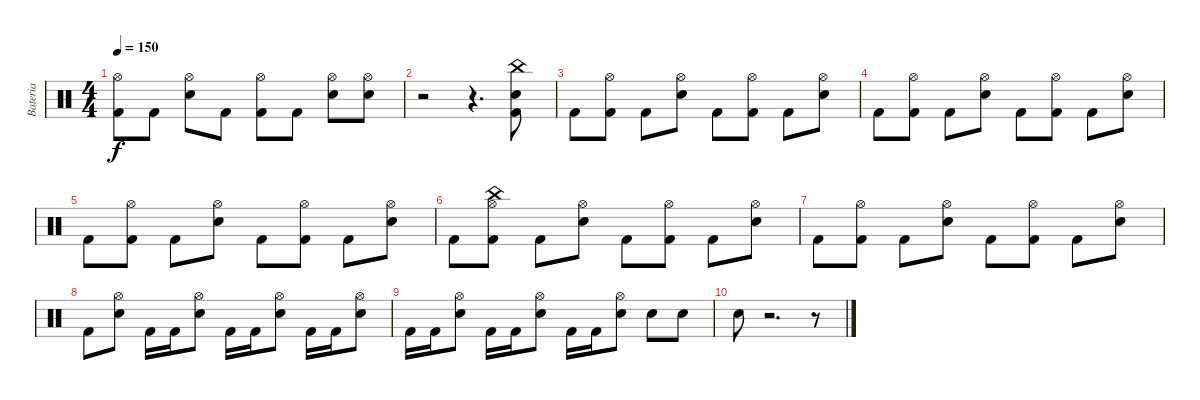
\track ("Bateria" "Bateria") {instrument percussion}
\staff {score}
\articulation defaults
\ts (4 4)
\tempo 150
\clef neutral
\ks c
("Kick (hit) 2" "Hi-Hat (open)").8{dy f} "Kick (hit) 2".8 ("Electric Snare (hit)" "Hi-Hat (open)").8 "Kick (hit) 2".8 ("Kick (hit) 2" "Hi-Hat (open)").8 "Kick (hit) 2".8 ("Electric Snare (hit)" "Hi-Hat (open)").8 ("Electric Snare (hit)" "Hi-Hat (open)").8 |
r.2 r.4{d} ("Kick (hit) 2" "Electric Snare (hit)" "China (hit)").8 |
"Kick (hit) 2".8 ("Kick (hit) 2" "Hi-Hat (open)").8 "Kick (hit) 2".8 ("Electric Snare (hit)" "Hi-Hat (open)").8 "Kick (hit) 2".8 ("Kick (hit) 2" "Hi-Hat (open)").8 "Kick (hit) 2".8 ("Electric Snare (hit)" "Hi-Hat (open)").8 |
"Kick (hit) 2".8 ("Kick (hit) 2" "Hi-Hat (open)").8 "Kick (hit) 2".8 ("Electric Snare (hit)" "Hi-Hat (open)").8 "Kick (hit) 2".8 ("Kick (hit) 2" "Hi-Hat (open)").8 "Kick (hit) 2".8 ("Electric Snare (hit)" "Hi-Hat (open)").8 |
"Kick (hit) 2".8 ("Kick (hit) 2" "Hi-Hat (open)").8 "Kick (hit) 2".8 ("Electric Snare (hit)" "Hi-Hat (open)").8 "Kick (hit) 2".8 ("Kick (hit) 2" "Hi-Hat (open)").8 "Kick (hit) 2".8 ("Electric Snare (hit)" "Hi-Hat (open)").8 |
"Kick (hit) 2".8 ("Kick (hit) 2" "China (hit)" "Hi-Hat (open)").8 "Kick (hit) 2".8 ("Electric Snare (hit)" "Hi-Hat (open)").8 "Kick (hit) 2".8 ("Kick (hit) 2" "Hi-Hat (open)").8 "Kick (hit) 2".8 ("Electric Snare (hit)" "Hi-Hat (open)").8 |
"Kick (hit) 2".8 ("Kick (hit) 2" "Hi-Hat (open)").8 "Kick (hit) 2".8 ("Electric Snare (hit)" "Hi-Hat (open)").8 "Kick (hit) 2".8 ("Kick (hit) 2" "Hi-Hat (open)").8 "Kick (hit) 2".8 ("Electric Snare (hit)" "Hi-Hat (open)").8 |
"Kick (hit) 2".8 ("Electric Snare (hit)" "Hi-Hat (open)").8 "Kick (hit) 2".16 "Kick (hit) 2".16 ("Electric Snare (hit)" "Hi-Hat (open)").8 "Kick (hit) 2".16 "Kick (hit) 2".16 ("Electric Snare (hit)" "Hi-Hat (open)").8 "Kick (hit) 2".16 "Kick (hit) 2".16 ("Electric Snare (hit)" "Hi-Hat (open)").8 |
"Kick (hit) 2".16 "Kick (hit) 2".16 ("Electric Snare (hit)" "Hi-Hat (open)").8 "Kick (hit) 2".16 "Kick (hit) 2".16 ("Electric Snare (hit)" "Hi-Hat (open)").8 "Kick (hit) 2".16 "Kick (hit) 2".16 ("Electric Snare (hit)" "Hi-Hat (open)").8 "Electric Snare (hit)".8 "Electric Snare (hit)".8 |
"Electric Snare (hit)".8 r.2{d} r.8
